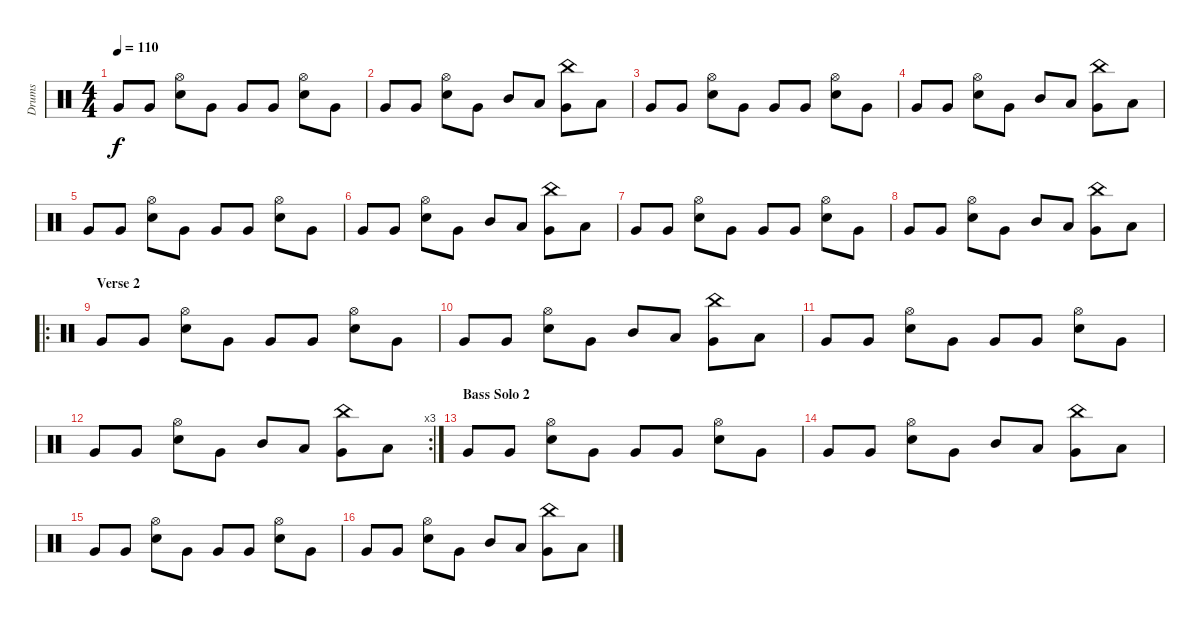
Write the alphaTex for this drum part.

\track ("Drums" "Drums") {instrument percussion}
\staff {score}
\articulation defaults
\ts (4 4)
\tempo 110
\clef neutral
\ks c "Very Low Tom (hit)".8{dy f} "Very Low Tom (hit)".8
("Hi-Hat (open)" "Snare (hit) 2").8 "Very Low Tom (hit)".8 "Very Low Tom (hit)".8 "Very Low Tom (hit)".8 ("Hi-Hat (open)" "Snare (hit) 2").8 "Very Low Tom (hit)".8 |
"Very Low Tom (hit)".8 "Very Low Tom (hit)".8 ("Hi-Hat (open)" "Snare (hit) 2").8 "Very Low Tom (hit)".8 "Mid Tom (hit)".8 "Low Tom (hit)".8 ("China (hit)" "Very Low Tom (hit)").8 "Low Floor Tom (hit)".8 |
"Very Low Tom (hit)".8 "Very Low Tom (hit)".8 ("Hi-Hat (open)" "Snare (hit) 2").8 "Very Low Tom (hit)".8 "Very Low Tom (hit)".8 "Very Low Tom (hit)".8 ("Hi-Hat (open)" "Snare (hit) 2").8 "Very Low Tom (hit)".8 |
"Very Low Tom (hit)".8 "Very Low Tom (hit)".8 ("Hi-Hat (open)" "Snare (hit) 2").8 "Very Low Tom (hit)".8 "Mid Tom (hit)".8 "Low Tom (hit)".8 ("China (hit)" "Very Low Tom (hit)").8 "Low Floor Tom (hit)".8 |
"Very Low Tom (hit)".8 "Very Low Tom (hit)".8 ("Hi-Hat (open)" "Snare (hit) 2").8 "Very Low Tom (hit)".8 "Very Low Tom (hit)".8 "Very Low Tom (hit)".8 ("Hi-Hat (open)" "Snare (hit) 2").8 "Very Low Tom (hit)".8 |
"Very Low Tom (hit)".8 "Very Low Tom (hit)".8 ("Hi-Hat (open)" "Snare (hit) 2").8 "Very Low Tom (hit)".8 "Mid Tom (hit)".8 "Low Tom (hit)".8 ("China (hit)" "Very Low Tom (hit)").8 "Low Floor Tom (hit)".8 |
"Very Low Tom (hit)".8 "Very Low Tom (hit)".8 ("Hi-Hat (open)" "Snare (hit) 2").8 "Very Low Tom (hit)".8 "Very Low Tom (hit)".8 "Very Low Tom (hit)".8 ("Hi-Hat (open)" "Snare (hit) 2").8 "Very Low Tom (hit)".8 |
"Very Low Tom (hit)".8 "Very Low Tom (hit)".8 ("Hi-Hat (open)" "Snare (hit) 2").8 "Very Low Tom (hit)".8 "Mid Tom (hit)".8 "Low Tom (hit)".8 ("China (hit)" "Very Low Tom (hit)").8 "Low Floor Tom (hit)".8 |
\ro
\section ("" "Verse 2")
"Very Low Tom (hit)".8 "Very Low Tom (hit)".8 ("Hi-Hat (open)" "Snare (hit) 2").8 "Very Low Tom (hit)".8 "Very Low Tom (hit)".8 "Very Low Tom (hit)".8 ("Hi-Hat (open)" "Snare (hit) 2").8 "Very Low Tom (hit)".8 |
"Very Low Tom (hit)".8 "Very Low Tom (hit)".8 ("Hi-Hat (open)" "Snare (hit) 2").8 "Very Low Tom (hit)".8 "Mid Tom (hit)".8 "Low Tom (hit)".8 ("China (hit)" "Very Low Tom (hit)").8 "Low Floor Tom (hit)".8 |
"Very Low Tom (hit)".8 "Very Low Tom (hit)".8 ("Hi-Hat (open)" "Snare (hit) 2").8 "Very Low Tom (hit)".8 "Very Low Tom (hit)".8 "Very Low Tom (hit)".8 ("Hi-Hat (open)" "Snare (hit) 2").8 "Very Low Tom (hit)".8 |
\rc 3 "Very Low Tom (hit)".8 "Very Low Tom (hit)".8
("Hi-Hat (open)" "Snare (hit) 2").8 "Very Low Tom (hit)".8 "Mid Tom (hit)".8 "Low Tom (hit)".8 ("China (hit)" "Very Low Tom (hit)").8 "Low Floor Tom (hit)".8 |
\section ("" "Bass Solo 2")
"Very Low Tom (hit)".8 "Very Low Tom (hit)".8 ("Hi-Hat (open)" "Snare (hit) 2").8 "Very Low Tom (hit)".8 "Very Low Tom (hit)".8 "Very Low Tom (hit)".8 ("Hi-Hat (open)" "Snare (hit) 2").8 "Very Low Tom (hit)".8 |
"Very Low Tom (hit)".8 "Very Low Tom (hit)".8 ("Hi-Hat (open)" "Snare (hit) 2").8 "Very Low Tom (hit)".8 "Mid Tom (hit)".8 "Low Tom (hit)".8 ("China (hit)" "Very Low Tom (hit)").8 "Low Floor Tom (hit)".8 |
"Very Low Tom (hit)".8 "Very Low Tom (hit)".8 ("Hi-Hat (open)" "Snare (hit) 2").8 "Very Low Tom (hit)".8 "Very Low Tom (hit)".8 "Very Low Tom (hit)".8 ("Hi-Hat (open)" "Snare (hit) 2").8 "Very Low Tom (hit)".8 |
"Very Low Tom (hit)".8 "Very Low Tom (hit)".8 ("Hi-Hat (open)" "Snare (hit) 2").8 "Very Low Tom (hit)".8 "Mid Tom (hit)".8 "Low Tom (hit)".8 ("China (hit)" "Very Low Tom (hit)").8 "Low Floor Tom (hit)".8
